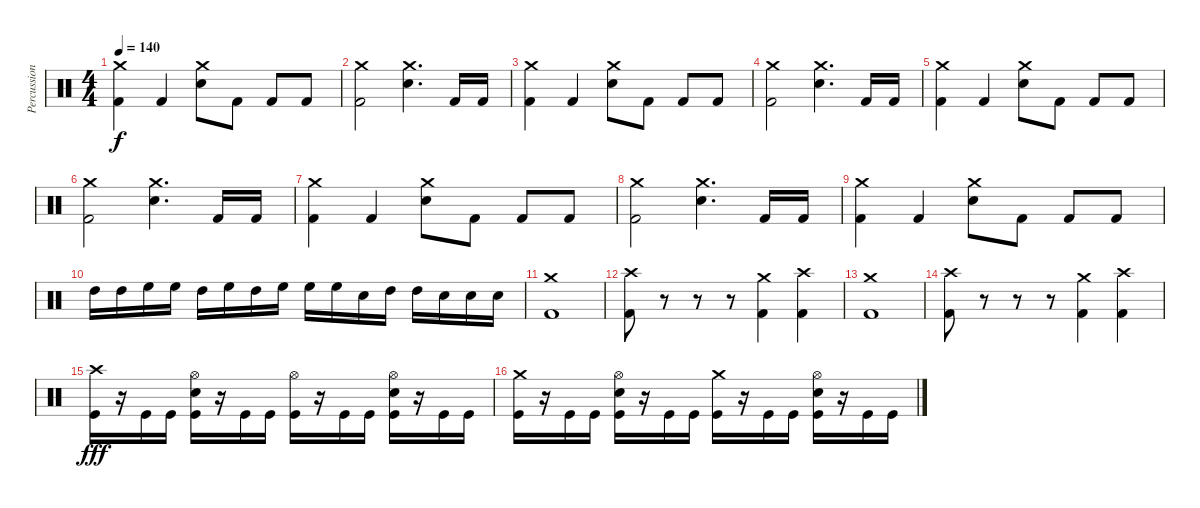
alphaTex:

\track ("Percussion" "Percussion") {instrument percussion}
\staff {score}
\articulation defaults
\ts (4 4)
\tempo 140
\clef neutral
\ks c
("Crash medium (hit)" "Kick (hit) 2").4{dy f} "Kick (hit) 2".4 ("Crash medium (hit)" "Electric Snare (hit)").8 "Kick (hit) 2".8 "Kick (hit) 2".8 "Kick (hit) 2".8 |
("Crash medium (hit)" "Kick (hit) 2").2 ("Crash medium (hit)" "Electric Snare (hit)").4{d} "Kick (hit) 2".16 "Kick (hit) 2".16 |
("Crash medium (hit)" "Kick (hit) 2").4 "Kick (hit) 2".4 ("Crash medium (hit)" "Electric Snare (hit)").8 "Kick (hit) 2".8 "Kick (hit) 2".8 "Kick (hit) 2".8 |
("Crash medium (hit)" "Kick (hit) 2").2 ("Crash medium (hit)" "Electric Snare (hit)").4{d} "Kick (hit) 2".16 "Kick (hit) 2".16 |
("Crash medium (hit)" "Kick (hit) 2").4 "Kick (hit) 2".4 ("Crash medium (hit)" "Electric Snare (hit)").8 "Kick (hit) 2".8 "Kick (hit) 2".8 "Kick (hit) 2".8 |
("Crash medium (hit)" "Kick (hit) 2").2 ("Crash medium (hit)" "Electric Snare (hit)").4{d} "Kick (hit) 2".16 "Kick (hit) 2".16 |
("Crash medium (hit)" "Kick (hit) 2").4 "Kick (hit) 2".4 ("Crash medium (hit)" "Electric Snare (hit)").8 "Kick (hit) 2".8 "Kick (hit) 2".8 "Kick (hit) 2".8 |
("Crash medium (hit)" "Kick (hit) 2").2 ("Crash medium (hit)" "Electric Snare (hit)").4{d} "Kick (hit) 2".16 "Kick (hit) 2".16 |
("Crash medium (hit)" "Kick (hit) 2").4 "Kick (hit) 2".4 ("Crash medium (hit)" "Electric Snare (hit)").8 "Kick (hit) 2".8 "Kick (hit) 2".8 "Kick (hit) 2".8 |
"High Tom (hit)".16 "High Tom (hit)".16 "High Floor Tom (hit)".16 "High Floor Tom (hit)".16 "High Tom (hit)".16 "High Floor Tom (hit)".16 "High Tom (hit)".16 "High Floor Tom (hit)".16 "High Floor Tom (hit)".16 "High Floor Tom (hit)".16 "Electric Snare (hit)".16 "High Tom (hit)".16 "High Tom (hit)".16 "Electric Snare (hit)".16 "Electric Snare (hit)".16 "Electric Snare (hit)".16 |
("Kick (hit) 2" "Crash medium (hit)").1 |
("Kick (hit) 2" "Crash high (hit)").8 r.8 r.8 r.8 ("Kick (hit) 2" "Crash medium (hit)").4 ("Kick (hit) 2" "Crash high (hit)").4 |
("Kick (hit) 2" "Crash medium (hit)").1 |
("Kick (hit) 2" "Crash high (hit)").8 r.8 r.8 r.8 ("Kick (hit) 2" "Crash medium (hit)").4 ("Kick (hit) 2" "Crash high (hit)").4 |
("Crash high (hit)" "Kick (hit)").16{dy fff} r.16 "Kick (hit)".16 "Kick (hit)".16 ("Hi-Hat (open)" "Electric Snare (hit)" "Kick (hit)").16 r.16 "Kick (hit)".16 "Kick (hit)".16 ("Hi-Hat (open)" "Kick (hit)").16 r.16 "Kick (hit)".16 "Kick (hit)".16 ("Hi-Hat (open)" "Electric Snare (hit)" "Kick (hit)").16 r.16 "Kick (hit)".16 "Kick (hit)".16 |
("Crash medium (hit)" "Kick (hit)").16 r.16 "Kick (hit)".16 "Kick (hit)".16 ("Hi-Hat (open)" "Electric Snare (hit)" "Kick (hit)").16 r.16 "Kick (hit)".16 "Kick (hit)".16 ("Crash medium (hit)" "Kick (hit)").16 r.16 "Kick (hit)".16 "Kick (hit)".16 ("Hi-Hat (open)" "Electric Snare (hit)" "Kick (hit)").16 r.16 "Kick (hit)".16 "Kick (hit)".16
